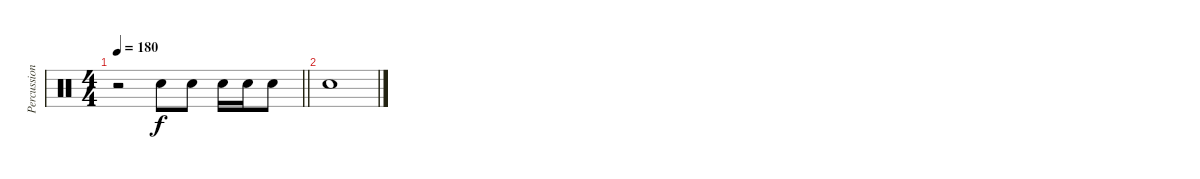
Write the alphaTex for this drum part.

\track ("Percussion" "Percussion") {instrument percussion}
\staff {score}
\articulation defaults
\ts (4 4)
\tempo 180
\clef neutral
\barLineRight lightlight
\ks c
r.2{dy f} "Electric Snare (hit)".8{volume 13} "Electric Snare (hit)".8 "Electric Snare (hit)".16 "Electric Snare (hit)".16 "Electric Snare (hit)".8 |
"Electric Snare (hit)".1
